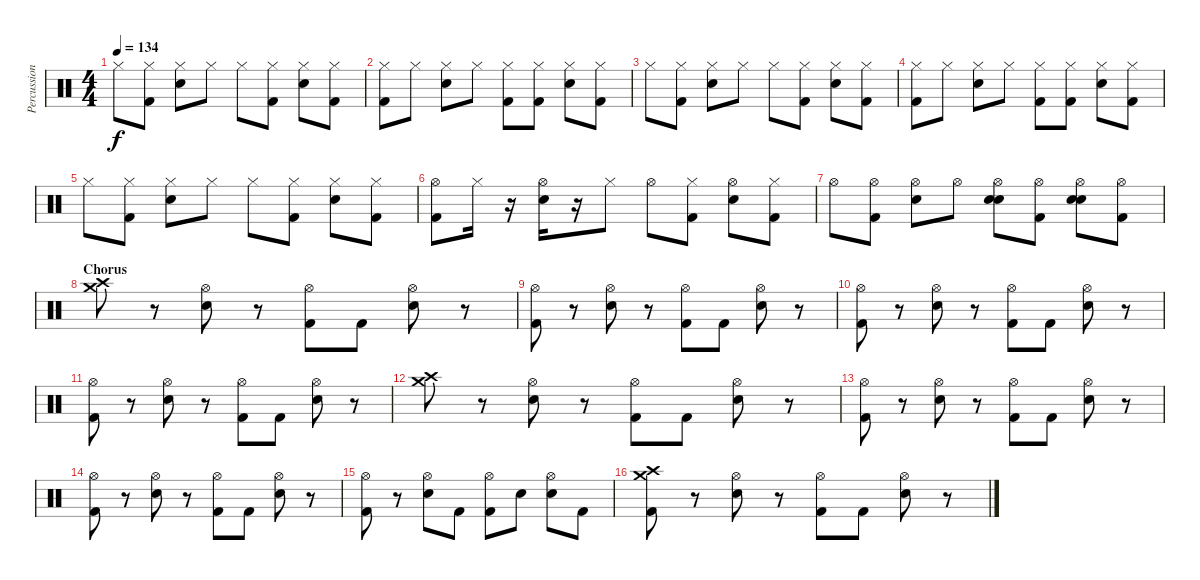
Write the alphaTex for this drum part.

\track ("Percussion" "Percussion") {instrument percussion}
\staff {score}
\articulation defaults
\ts (4 4)
\tempo 134
\clef neutral
\ks c "Hi-Hat (closed)".8{dy f}
("Hi-Hat (closed)" "Kick (hit) 2").8 ("Hi-Hat (closed)" "Snare (hit) 2").8 "Hi-Hat (closed)".8 "Hi-Hat (closed)".8 ("Hi-Hat (closed)" "Kick (hit) 2").8 ("Hi-Hat (closed)" "Snare (hit) 2").8 ("Hi-Hat (closed)" "Kick (hit) 2").8 |
("Hi-Hat (closed)" "Kick (hit) 2").8 "Hi-Hat (closed)".8 ("Hi-Hat (closed)" "Snare (hit) 2").8 "Hi-Hat (closed)".8 ("Hi-Hat (closed)" "Kick (hit) 2").8 ("Hi-Hat (closed)" "Kick (hit) 2").8 ("Hi-Hat (closed)" "Snare (hit) 2").8 ("Hi-Hat (closed)" "Kick (hit) 2").8 |
"Hi-Hat (closed)".8 ("Hi-Hat (closed)" "Kick (hit) 2").8 ("Hi-Hat (closed)" "Snare (hit) 2").8 "Hi-Hat (closed)".8 "Hi-Hat (closed)".8 ("Hi-Hat (closed)" "Kick (hit) 2").8 ("Hi-Hat (closed)" "Snare (hit) 2").8 ("Hi-Hat (closed)" "Kick (hit) 2").8 |
("Hi-Hat (closed)" "Kick (hit) 2").8 "Hi-Hat (closed)".8 ("Hi-Hat (closed)" "Snare (hit) 2").8 "Hi-Hat (closed)".8 ("Hi-Hat (closed)" "Kick (hit) 2").8 ("Hi-Hat (closed)" "Kick (hit) 2").8 ("Hi-Hat (closed)" "Snare (hit) 2").8 ("Hi-Hat (closed)" "Kick (hit) 2").8 |
"Hi-Hat (closed)".8 ("Hi-Hat (closed)" "Kick (hit) 2").8 ("Hi-Hat (closed)" "Snare (hit) 2").8 "Hi-Hat (closed)".8 "Hi-Hat (closed)".8 ("Hi-Hat (closed)" "Kick (hit) 2").8 ("Hi-Hat (closed)" "Snare (hit) 2").8 ("Hi-Hat (closed)" "Kick (hit) 2").8 |
("Hi-Hat (open)" "Kick (hit) 2").8 "Hi-Hat (closed)".16 r.16 ("Hi-Hat (open)" "Snare (hit) 2").16 r.16 "Hi-Hat (closed)".8 "Hi-Hat (open)".8 ("Hi-Hat (closed)" "Kick (hit) 2").8 ("Hi-Hat (open)" "Snare (hit) 2").8 ("Hi-Hat (closed)" "Kick (hit) 2").8 |
"Hi-Hat (open)".8 ("Hi-Hat (open)" "Kick (hit) 2").8 ("Hi-Hat (open)" "Snare (hit) 2").8 "Hi-Hat (open)".8 ("Hi-Hat (open)" "Electric Snare (hit)" "Snare (hit) 2").8 ("Hi-Hat (open)" "Kick (hit) 2").8 ("Hi-Hat (open)" "Electric Snare (hit)" "Snare (hit) 2").8 ("Hi-Hat (open)" "Kick (hit) 2").8 |
\section ("" "Chorus")
("Crash high (hit)" "Crash medium (hit)").8 r.8 ("Hi-Hat (open)" "Snare (hit) 2").8 r.8 ("Hi-Hat (open)" "Kick (hit) 2").8 "Kick (hit) 2".8 ("Hi-Hat (open)" "Snare (hit) 2").8 r.8 |
("Hi-Hat (open)" "Kick (hit) 2").8 r.8 ("Hi-Hat (open)" "Snare (hit) 2").8 r.8 ("Hi-Hat (open)" "Kick (hit) 2").8 "Kick (hit) 2".8 ("Hi-Hat (open)" "Snare (hit) 2").8 r.8 |
("Hi-Hat (open)" "Kick (hit) 2").8 r.8 ("Hi-Hat (open)" "Snare (hit) 2").8 r.8 ("Hi-Hat (open)" "Kick (hit) 2").8 "Kick (hit) 2".8 ("Hi-Hat (open)" "Snare (hit) 2").8 r.8 |
("Hi-Hat (open)" "Kick (hit) 2").8 r.8 ("Hi-Hat (open)" "Snare (hit) 2").8 r.8 ("Hi-Hat (open)" "Kick (hit) 2").8 "Kick (hit) 2".8 ("Hi-Hat (open)" "Snare (hit) 2").8 r.8 |
("Crash high (hit)" "Crash medium (hit)").8 r.8 ("Hi-Hat (open)" "Snare (hit) 2").8 r.8 ("Hi-Hat (open)" "Kick (hit) 2").8 "Kick (hit) 2".8 ("Hi-Hat (open)" "Snare (hit) 2").8 r.8 |
("Hi-Hat (open)" "Kick (hit) 2").8 r.8 ("Hi-Hat (open)" "Snare (hit) 2").8 r.8 ("Hi-Hat (open)" "Kick (hit) 2").8 "Kick (hit) 2".8 ("Hi-Hat (open)" "Snare (hit) 2").8 r.8 |
("Hi-Hat (open)" "Kick (hit) 2").8 r.8 ("Hi-Hat (open)" "Snare (hit) 2").8 r.8 ("Hi-Hat (open)" "Kick (hit) 2").8 "Kick (hit) 2".8 ("Hi-Hat (open)" "Snare (hit) 2").8 r.8 |
("Hi-Hat (open)" "Kick (hit) 2").8 r.8 ("Hi-Hat (open)" "Snare (hit) 2").8 "Kick (hit) 2".8 ("Hi-Hat (open)" "Kick (hit) 2").8 "Snare (hit) 2".8 ("Hi-Hat (open)" "Snare (hit) 2").8 "Kick (hit) 2".8 |
("Crash high (hit)" "Crash medium (hit)" "Kick (hit) 2").8 r.8 ("Hi-Hat (open)" "Snare (hit) 2").8 r.8 ("Hi-Hat (open)" "Kick (hit) 2").8 "Kick (hit) 2".8 ("Hi-Hat (open)" "Snare (hit) 2").8 r.8
